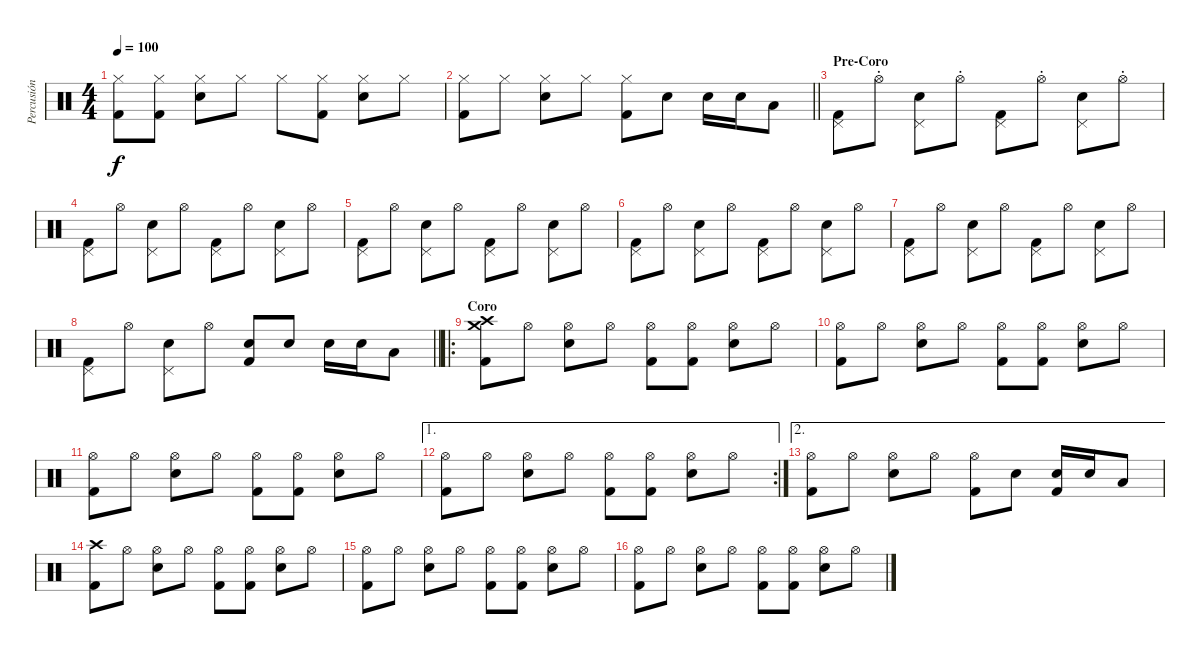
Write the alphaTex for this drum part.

\track ("Percusión" "Percusión") {instrument percussion}
\staff {score}
\articulation defaults
\ts (4 4)
\tempo 100
\clef neutral
\ks c
("Hi-Hat (closed)" "Kick (hit) 2").8{dy f} ("Hi-Hat (closed)" "Kick (hit) 2").8 ("Hi-Hat (closed)" "Snare (hit) 2").8 "Hi-Hat (closed)".8 "Hi-Hat (closed)".8 ("Hi-Hat (closed)" "Kick (hit) 2").8 ("Hi-Hat (closed)" "Snare (hit) 2").8 "Hi-Hat (closed)".8 |
\barLineRight lightlight
("Hi-Hat (closed)" "Kick (hit) 2").8 "Hi-Hat (closed)".8 ("Hi-Hat (closed)" "Snare (hit) 2").8 "Hi-Hat (closed)".8 ("Hi-Hat (closed)" "Kick (hit) 2").8 "Snare (hit) 2".8 "Snare (hit) 2".16 "Snare (hit) 2".16 "Low Tom (hit)".8 |
\section ("" "Pre-Coro")
("Pedal Hi-Hat (hit)" "Kick (hit) 2").8 "Hi-Hat (open)"{st}.8 ("Pedal Hi-Hat (hit)" "Snare (hit) 2").8 "Hi-Hat (open)"{st}.8 ("Pedal Hi-Hat (hit)" "Kick (hit) 2").8 "Hi-Hat (open)"{st}.8 ("Pedal Hi-Hat (hit)" "Snare (hit) 2").8 "Hi-Hat (open)"{st}.8 |
("Pedal Hi-Hat (hit)" "Kick (hit) 2").8 "Hi-Hat (open)".8 ("Pedal Hi-Hat (hit)" "Snare (hit) 2").8 "Hi-Hat (open)".8 ("Pedal Hi-Hat (hit)" "Kick (hit) 2").8 "Hi-Hat (open)".8 ("Pedal Hi-Hat (hit)" "Snare (hit) 2").8 "Hi-Hat (open)".8 |
("Pedal Hi-Hat (hit)" "Kick (hit) 2").8 "Hi-Hat (open)".8 ("Pedal Hi-Hat (hit)" "Snare (hit) 2").8 "Hi-Hat (open)".8 ("Pedal Hi-Hat (hit)" "Kick (hit) 2").8 "Hi-Hat (open)".8 ("Pedal Hi-Hat (hit)" "Snare (hit) 2").8 "Hi-Hat (open)".8 |
("Pedal Hi-Hat (hit)" "Kick (hit) 2").8 "Hi-Hat (open)".8 ("Pedal Hi-Hat (hit)" "Snare (hit) 2").8 "Hi-Hat (open)".8 ("Pedal Hi-Hat (hit)" "Kick (hit) 2").8 "Hi-Hat (open)".8 ("Pedal Hi-Hat (hit)" "Snare (hit) 2").8 "Hi-Hat (open)".8 |
("Pedal Hi-Hat (hit)" "Kick (hit) 2").8 "Hi-Hat (open)".8 ("Pedal Hi-Hat (hit)" "Snare (hit) 2").8 "Hi-Hat (open)".8 ("Pedal Hi-Hat (hit)" "Kick (hit) 2").8 "Hi-Hat (open)".8 ("Pedal Hi-Hat (hit)" "Snare (hit) 2").8 "Hi-Hat (open)".8 |
\barLineRight lightlight
("Pedal Hi-Hat (hit)" "Kick (hit) 2").8 "Hi-Hat (open)".8 ("Pedal Hi-Hat (hit)" "Snare (hit) 2").8 "Hi-Hat (open)".8 ("Snare (hit) 2" "Kick (hit) 2").8 "Snare (hit) 2".8 "Snare (hit) 2".16 "Snare (hit) 2".16 "Low Tom (hit)".8 |
\ro
\section ("" "Coro")
("Crash medium (hit)" "Crash high (hit)" "Kick (hit) 2").8 "Hi-Hat (open)".8 ("Hi-Hat (open)" "Snare (hit) 2").8 "Hi-Hat (open)".8 ("Hi-Hat (open)" "Kick (hit) 2").8 ("Hi-Hat (open)" "Kick (hit) 2").8 ("Hi-Hat (open)" "Snare (hit) 2").8 "Hi-Hat (open)".8 |
("Hi-Hat (open)" "Kick (hit) 2").8 "Hi-Hat (open)".8 ("Hi-Hat (open)" "Snare (hit) 2").8 "Hi-Hat (open)".8 ("Hi-Hat (open)" "Kick (hit) 2").8 ("Hi-Hat (open)" "Kick (hit) 2").8 ("Hi-Hat (open)" "Snare (hit) 2").8 "Hi-Hat (open)".8 |
("Hi-Hat (open)" "Kick (hit) 2").8 "Hi-Hat (open)".8 ("Hi-Hat (open)" "Snare (hit) 2").8 "Hi-Hat (open)".8 ("Hi-Hat (open)" "Kick (hit) 2").8 ("Hi-Hat (open)" "Kick (hit) 2").8 ("Hi-Hat (open)" "Snare (hit) 2").8 "Hi-Hat (open)".8 |
\ae 1
\rc 2
("Hi-Hat (open)" "Kick (hit) 2").8 "Hi-Hat (open)".8 ("Hi-Hat (open)" "Snare (hit) 2").8 "Hi-Hat (open)".8 ("Hi-Hat (open)" "Kick (hit) 2").8 ("Hi-Hat (open)" "Kick (hit) 2").8 ("Hi-Hat (open)" "Snare (hit) 2").8 "Hi-Hat (open)".8 |
\ae 2
("Hi-Hat (open)" "Kick (hit) 2").8 "Hi-Hat (open)".8 ("Hi-Hat (open)" "Snare (hit) 2").8 "Hi-Hat (open)".8 ("Hi-Hat (open)" "Kick (hit) 2").8 "Snare (hit) 2".8 ("Snare (hit) 2" "Kick (hit) 2").16 "Snare (hit) 2".16 "Low Tom (hit)".8 |
("Crash high (hit)" "Kick (hit) 2").8 "Hi-Hat (open)".8 ("Hi-Hat (open)" "Snare (hit) 2").8 "Hi-Hat (open)".8 ("Hi-Hat (open)" "Kick (hit) 2").8 ("Hi-Hat (open)" "Kick (hit) 2").8 ("Hi-Hat (open)" "Snare (hit) 2").8 "Hi-Hat (open)".8 |
("Hi-Hat (open)" "Kick (hit) 2").8 "Hi-Hat (open)".8 ("Hi-Hat (open)" "Snare (hit) 2").8 "Hi-Hat (open)".8 ("Hi-Hat (open)" "Kick (hit) 2").8 ("Hi-Hat (open)" "Kick (hit) 2").8 ("Hi-Hat (open)" "Snare (hit) 2").8 "Hi-Hat (open)".8 |
("Hi-Hat (open)" "Kick (hit) 2").8 "Hi-Hat (open)".8 ("Hi-Hat (open)" "Snare (hit) 2").8 "Hi-Hat (open)".8 ("Hi-Hat (open)" "Kick (hit) 2").8 ("Hi-Hat (open)" "Kick (hit) 2").8 ("Hi-Hat (open)" "Snare (hit) 2").8 "Hi-Hat (open)".8
